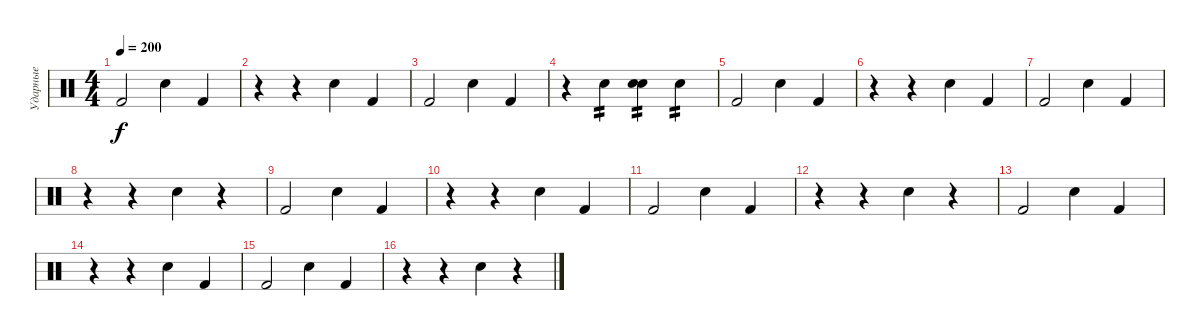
\track ("Ударные" "Ударные") {instrument percussion}
\staff {score}
\articulation defaults
\ts (4 4)
\tempo 200
\clef neutral
\ks c "Kick (hit) 2".2{dy f} "Snare (hit) 2".4 "Kick (hit) 2".4
|
r.4 r.4 "Snare (hit) 2".4 "Kick (hit) 2".4 |
"Kick (hit) 2".2 "Snare (hit) 2".4 "Kick (hit) 2".4 |
r.4 "Snare (hit) 2".4{tp 2} ("Snare (hit) 2" "Snare (hit) 2").4{tp 2} "Snare (hit) 2".4{tp 2} |
"Kick (hit) 2".2 "Snare (hit) 2".4 "Kick (hit) 2".4 |
r.4 r.4 "Snare (hit) 2".4 "Kick (hit) 2".4 |
"Kick (hit) 2".2 "Snare (hit) 2".4 "Kick (hit) 2".4 |
r.4 r.4 "Snare (hit) 2".4 r.4 |
"Kick (hit) 2".2 "Snare (hit) 2".4 "Kick (hit) 2".4 |
r.4 r.4 "Snare (hit) 2".4 "Kick (hit) 2".4 |
"Kick (hit) 2".2 "Snare (hit) 2".4 "Kick (hit) 2".4 |
r.4 r.4 "Snare (hit) 2".4 r.4 |
"Kick (hit) 2".2 "Snare (hit) 2".4 "Kick (hit) 2".4 |
r.4 r.4 "Snare (hit) 2".4 "Kick (hit) 2".4 |
"Kick (hit) 2".2 "Snare (hit) 2".4 "Kick (hit) 2".4 |
r.4 r.4 "Snare (hit) 2".4 r.4
